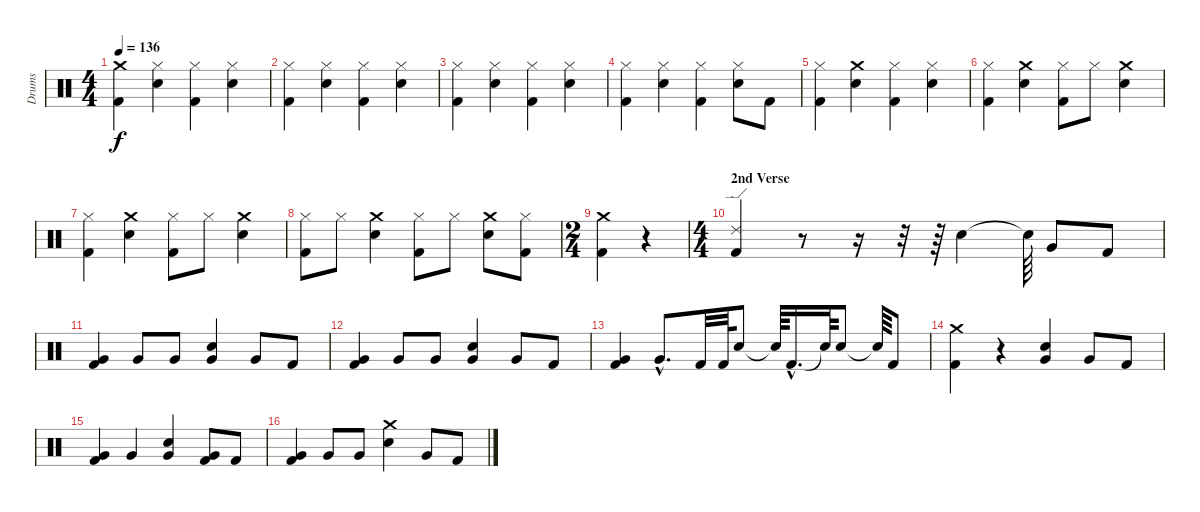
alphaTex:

\track ("Drums" "Drums") {instrument percussion}
\staff {score}
\articulation defaults
\ts (4 4)
\tempo 136
\clef neutral
\ks c
("Kick (hit) 2" "Crash medium (hit)").4{dy f} ("Hi-Hat (closed)" "Snare (hit) 2").4 ("Hi-Hat (closed)" "Kick (hit) 2").4 ("Snare (hit) 2" "Hi-Hat (closed)").4 |
("Hi-Hat (closed)" "Kick (hit) 2").4 ("Snare (hit) 2" "Hi-Hat (closed)").4 ("Kick (hit) 2" "Hi-Hat (closed)").4 ("Snare (hit) 2" "Hi-Hat (closed)").4 |
("Hi-Hat (closed)" "Kick (hit) 2").4 ("Snare (hit) 2" "Hi-Hat (closed)").4 ("Kick (hit) 2" "Hi-Hat (closed)").4 ("Snare (hit) 2" "Hi-Hat (closed)").4 |
("Kick (hit) 2" "Hi-Hat (closed)").4 ("Snare (hit) 2" "Hi-Hat (closed)").4 ("Kick (hit) 2" "Hi-Hat (closed)").4 ("Snare (hit) 2" "Hi-Hat (closed)").8 "Kick (hit) 2".8 |
("Kick (hit) 2" "Hi-Hat (closed)").4 ("Crash medium (hit)" "Snare (hit) 2").4 ("Kick (hit) 2" "Hi-Hat (closed)").4 ("Snare (hit) 2" "Hi-Hat (closed)").4 |
("Hi-Hat (closed)" "Kick (hit) 2").4 ("Crash medium (hit)" "Snare (hit) 2").4 ("Hi-Hat (closed)" "Kick (hit) 2").8 "Hi-Hat (closed)".8 ("Crash medium (hit)" "Snare (hit) 2").4 |
("Kick (hit) 2" "Hi-Hat (closed)").4 ("Crash medium (hit)" "Snare (hit) 2").4 ("Kick (hit) 2" "Hi-Hat (closed)").8 "Hi-Hat (closed)".8 ("Crash medium (hit)" "Snare (hit) 2").4 |
("Hi-Hat (closed)" "Kick (hit) 2").8 "Hi-Hat (closed)".8 ("Crash medium (hit)" "Snare (hit) 2").4 ("Hi-Hat (closed)" "Kick (hit) 2").8 "Hi-Hat (closed)".8 ("Crash medium (hit)" "Snare (hit) 2").8 ("Kick (hit) 2" "Hi-Hat (closed)").8 |
\ts (2 4)
("Kick (hit) 2" "Crash medium (hit)").4 r.4 |
\ts (4 4)
\section ("" "2nd Verse")
("Ride (edge) 2" "Kick (hit) 2").4 r.8 r.16 r.32 r.64 "Snare (hit) 2".4 "Snare (hit)"{t}.64 "Very Low Tom (hit)".8 "Kick (hit) 2".8 |
("Very Low Tom (hit)" "Kick (hit) 2").4 "Very Low Tom (hit)".8 "Very Low Tom (hit)".8 ("Snare (hit) 2" "Very Low Tom (hit)").4 "Very Low Tom (hit)".8 "Kick (hit) 2".8 |
("Very Low Tom (hit)" "Kick (hit) 2").4 "Very Low Tom (hit)".8 "Very Low Tom (hit)".8 ("Snare (hit) 2" "Very Low Tom (hit)").4 "Very Low Tom (hit)".8 "Kick (hit) 2".8 |
("Kick (hit) 2" "Very Low Tom (hit)").4 "Very Low Tom (hit)"{hac}.8{d} "Kick (hit) 2".32 "Kick (hit) 2".64 "Snare (hit) 2".8 "Snare (hit)"{t}.64 "Kick (hit) 2"{hac}.16{d} "Snare (hit)"{t}.64 "Snare (hit) 2".8 "Snare (hit)"{t}.64 "Kick (hit) 2".8 |
("Kick (hit) 2" "Crash medium (hit)").4 r.4 ("Snare (hit) 2" "Very Low Tom (hit)").4 "Very Low Tom (hit)".8 "Kick (hit) 2".8 |
("Kick (hit) 2" "Very Low Tom (hit)").4 "Very Low Tom (hit)".4 ("Snare (hit) 2" "Very Low Tom (hit)").4 ("Kick (hit) 2" "Very Low Tom (hit)").8 "Kick (hit) 2".8 |
("Kick (hit) 2" "Very Low Tom (hit)").4 "Very Low Tom (hit)".8 "Very Low Tom (hit)".8 ("Crash medium (hit)" "Snare (hit) 2").4 "Very Low Tom (hit)".8 "Kick (hit) 2".8
